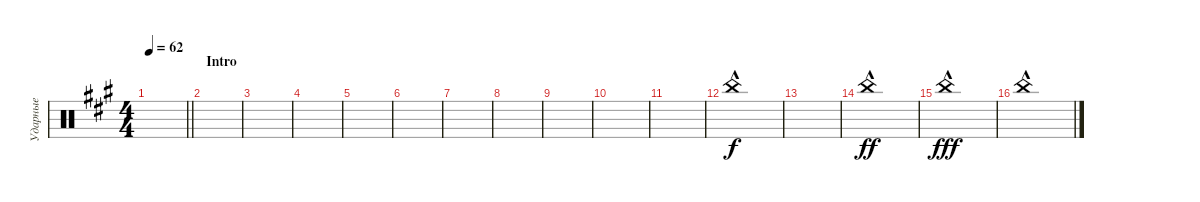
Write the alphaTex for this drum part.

\track ("Ударные" "Ударные") {instrument percussion}
\staff {score}
\articulation defaults
\ts (4 4)
\tempo 62
\clef neutral
\barLineRight lightlight
\ks f#minor
|
\section ("" "Intro")
|
|
|
|
|
|
|
|
|
|
"China (hit)"{hac}.1 |
|
"China (hit)"{hac}.1{dy ff} |
"China (hit)"{hac}.1{dy fff} |
"China (hit)"{hac}.1
